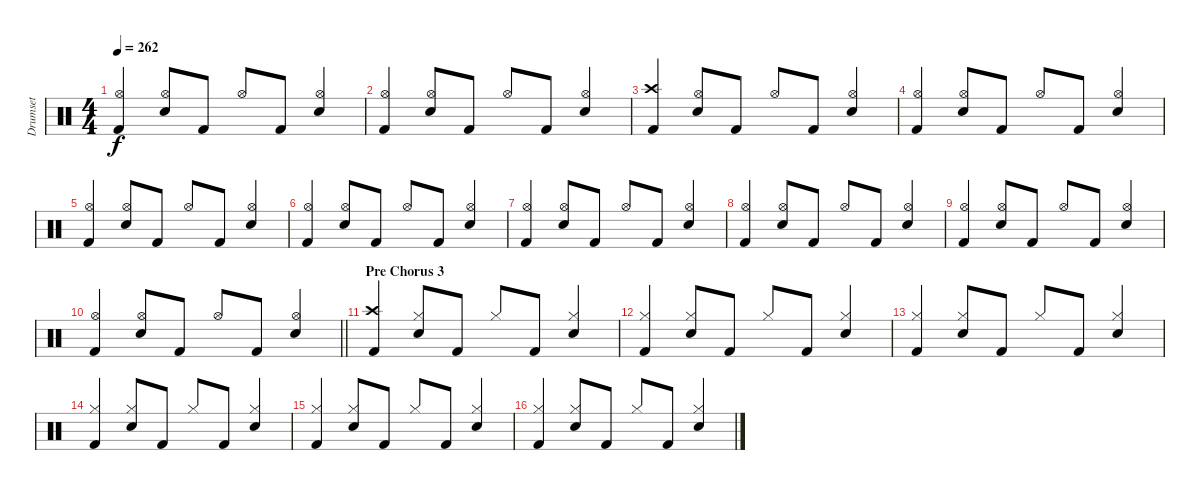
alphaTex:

\track ("Drumset" "Drumset") {instrument percussion}
\staff {score}
\articulation defaults
\ts (4 4)
\tempo 262
\clef neutral
\ks c
("Hi-Hat (open)" "Kick (hit) 2").4{dy f beam Up} ("Snare (hit) 2" "Hi-Hat (open)").8{beam Up} "Kick (hit) 2".8{beam Up} "Hi-Hat (open)".8{beam Up} "Kick (hit) 2".8{beam Up} ("Hi-Hat (open)" "Snare (hit) 2").4{beam Up} |
("Hi-Hat (open)" "Kick (hit) 2").4{beam Up} ("Snare (hit) 2" "Hi-Hat (open)").8{beam Up} "Kick (hit) 2".8{beam Up} "Hi-Hat (open)".8{beam Up} "Kick (hit) 2".8{beam Up} ("Hi-Hat (open)" "Snare (hit) 2").4{beam Up} |
("Crash high (hit)" "Kick (hit) 2").4{beam Up} ("Snare (hit) 2" "Hi-Hat (open)").8{beam Up} "Kick (hit) 2".8{beam Up} "Hi-Hat (open)".8{beam Up} "Kick (hit) 2".8{beam Up} ("Hi-Hat (open)" "Snare (hit) 2").4{beam Up} |
("Hi-Hat (open)" "Kick (hit) 2").4{beam Up} ("Snare (hit) 2" "Hi-Hat (open)").8{beam Up} "Kick (hit) 2".8{beam Up} "Hi-Hat (open)".8{beam Up} "Kick (hit) 2".8{beam Up} ("Hi-Hat (open)" "Snare (hit) 2").4{beam Up} |
("Hi-Hat (open)" "Kick (hit) 2").4{beam Up} ("Snare (hit) 2" "Hi-Hat (open)").8{beam Up} "Kick (hit) 2".8{beam Up} "Hi-Hat (open)".8{beam Up} "Kick (hit) 2".8{beam Up} ("Hi-Hat (open)" "Snare (hit) 2").4{beam Up} |
("Hi-Hat (open)" "Kick (hit) 2").4{beam Up} ("Snare (hit) 2" "Hi-Hat (open)").8{beam Up} "Kick (hit) 2".8{beam Up} "Hi-Hat (open)".8{beam Up} "Kick (hit) 2".8{beam Up} ("Hi-Hat (open)" "Snare (hit) 2").4{beam Up} |
("Hi-Hat (open)" "Kick (hit) 2").4{beam Up} ("Snare (hit) 2" "Hi-Hat (open)").8{beam Up} "Kick (hit) 2".8{beam Up} "Hi-Hat (open)".8{beam Up} "Kick (hit) 2".8{beam Up} ("Hi-Hat (open)" "Snare (hit) 2").4{beam Up} |
("Hi-Hat (open)" "Kick (hit) 2").4{beam Up} ("Snare (hit) 2" "Hi-Hat (open)").8{beam Up} "Kick (hit) 2".8{beam Up} "Hi-Hat (open)".8{beam Up} "Kick (hit) 2".8{beam Up} ("Hi-Hat (open)" "Snare (hit) 2").4{beam Up} |
("Hi-Hat (open)" "Kick (hit) 2").4{beam Up} ("Snare (hit) 2" "Hi-Hat (open)").8{beam Up} "Kick (hit) 2".8{beam Up} "Hi-Hat (open)".8{beam Up} "Kick (hit) 2".8{beam Up} ("Hi-Hat (open)" "Snare (hit) 2").4{beam Up} |
\barLineRight lightlight
("Hi-Hat (open)" "Kick (hit) 2").4{beam Up} ("Snare (hit) 2" "Hi-Hat (open)").8{beam Up} "Kick (hit) 2".8{beam Up} "Hi-Hat (open)".8{beam Up} "Kick (hit) 2".8{beam Up} ("Hi-Hat (open)" "Snare (hit) 2").4{beam Up} |
\section ("" "Pre Chorus 3")
("Crash high (hit)" "Kick (hit) 2").4{beam Up} ("Hi-Hat (closed)" "Snare (hit) 2").8{beam Up} "Kick (hit) 2".8{beam Up} "Hi-Hat (closed)".8{beam Up} "Kick (hit) 2".8{beam Up} ("Snare (hit) 2" "Hi-Hat (closed)").4{beam Up} |
("Hi-Hat (closed)" "Kick (hit) 2").4{beam Up} ("Hi-Hat (closed)" "Snare (hit) 2").8{beam Up} "Kick (hit) 2".8{beam Up} "Hi-Hat (closed)".8{beam Up} "Kick (hit) 2".8{beam Up} ("Snare (hit) 2" "Hi-Hat (closed)").4{beam Up} |
("Hi-Hat (closed)" "Kick (hit) 2").4{beam Up} ("Hi-Hat (closed)" "Snare (hit) 2").8{beam Up} "Kick (hit) 2".8{beam Up} "Hi-Hat (closed)".8{beam Up} "Kick (hit) 2".8{beam Up} ("Snare (hit) 2" "Hi-Hat (closed)").4{beam Up} |
("Hi-Hat (closed)" "Kick (hit) 2").4{beam Up} ("Hi-Hat (closed)" "Snare (hit) 2").8{beam Up} "Kick (hit) 2".8{beam Up} "Hi-Hat (closed)".8{beam Up} "Kick (hit) 2".8{beam Up} ("Snare (hit) 2" "Hi-Hat (closed)").4{beam Up} |
("Hi-Hat (closed)" "Kick (hit) 2").4{beam Up} ("Hi-Hat (closed)" "Snare (hit) 2").8{beam Up} "Kick (hit) 2".8{beam Up} "Hi-Hat (closed)".8{beam Up} "Kick (hit) 2".8{beam Up} ("Snare (hit) 2" "Hi-Hat (closed)").4{beam Up} |
("Hi-Hat (closed)" "Kick (hit) 2").4{beam Up} ("Hi-Hat (closed)" "Snare (hit) 2").8{beam Up} "Kick (hit) 2".8{beam Up} "Hi-Hat (closed)".8{beam Up} "Kick (hit) 2".8{beam Up} ("Snare (hit) 2" "Hi-Hat (closed)").4{beam Up}
